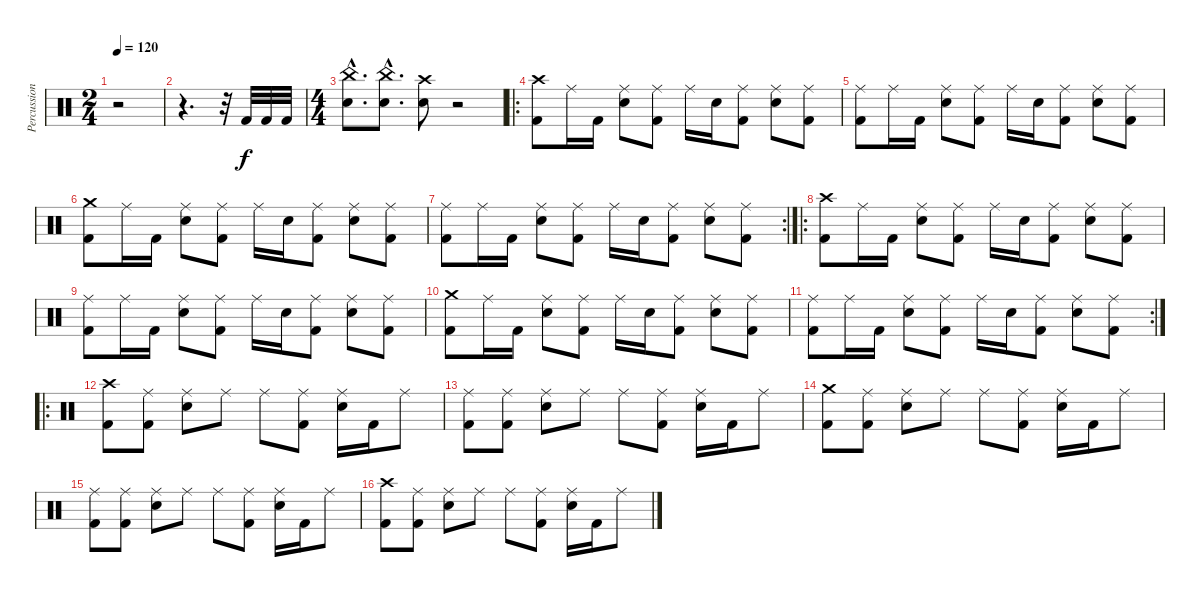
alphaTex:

\track ("Percussions" "Percussion") {instrument percussion}
\staff {score}
\articulation defaults
\ts (2 4)
\tempo 120
\clef neutral
\ks c
r.2{dy f} |
r.4{d} r.32 "Kick (hit) 2".32 "Kick (hit) 2".32 "Kick (hit) 2".32 |
\ts (4 4)
("China (hit)"{hac} "Electric Snare (hit)"{hac}).8{d} ("China (hit)"{hac} "Electric Snare (hit)"{hac}).8{d} ("Crash high (hit)" "Electric Snare (hit)").8 r.2 |
\ro
("Crash high (hit)" "Kick (hit) 2").8 "Ride (middle)".16 "Kick (hit) 2".16 ("Ride (middle)" "Electric Snare (hit)").8 ("Ride (middle)" "Kick (hit) 2").8 "Ride (middle)".16 "Electric Snare (hit)".16 ("Ride (middle)" "Kick (hit) 2").8 ("Ride (middle)" "Electric Snare (hit)").8 ("Ride (middle)" "Kick (hit) 2").8 |
("Ride (middle)" "Kick (hit) 2").8 "Ride (middle)".16 "Kick (hit) 2".16 ("Ride (middle)" "Electric Snare (hit)").8 ("Ride (middle)" "Kick (hit) 2").8 "Ride (middle)".16 "Electric Snare (hit)".16 ("Ride (middle)" "Kick (hit) 2").8 ("Ride (middle)" "Electric Snare (hit)").8 ("Ride (middle)" "Kick (hit) 2").8 |
("Crash medium (hit)" "Kick (hit) 2").8 "Ride (middle)".16 "Kick (hit) 2".16 ("Ride (middle)" "Electric Snare (hit)").8 ("Ride (middle)" "Kick (hit) 2").8 "Ride (middle)".16 "Electric Snare (hit)".16 ("Ride (middle)" "Kick (hit) 2").8 ("Ride (middle)" "Electric Snare (hit)").8 ("Ride (middle)" "Kick (hit) 2").8 |
\rc 2
("Ride (middle)" "Kick (hit) 2").8 "Ride (middle)".16 "Kick (hit) 2".16 ("Ride (middle)" "Electric Snare (hit)").8 ("Ride (middle)" "Kick (hit) 2").8 "Ride (middle)".16 "Electric Snare (hit)".16 ("Ride (middle)" "Kick (hit) 2").8 ("Ride (middle)" "Electric Snare (hit)").8 ("Ride (middle)" "Kick (hit) 2").8 |
\ro
("Crash high (hit)" "Kick (hit) 2").8 "Ride (middle)".16 "Kick (hit) 2".16 ("Ride (middle)" "Electric Snare (hit)").8 ("Ride (middle)" "Kick (hit) 2").8 "Ride (middle)".16 "Electric Snare (hit)".16 ("Ride (middle)" "Kick (hit) 2").8 ("Ride (middle)" "Electric Snare (hit)").8 ("Ride (middle)" "Kick (hit) 2").8 |
("Ride (middle)" "Kick (hit) 2").8 "Ride (middle)".16 "Kick (hit) 2".16 ("Ride (middle)" "Electric Snare (hit)").8 ("Ride (middle)" "Kick (hit) 2").8 "Ride (middle)".16 "Electric Snare (hit)".16 ("Ride (middle)" "Kick (hit) 2").8 ("Ride (middle)" "Electric Snare (hit)").8 ("Ride (middle)" "Kick (hit) 2").8 |
("Crash medium (hit)" "Kick (hit) 2").8 "Ride (middle)".16 "Kick (hit) 2".16 ("Ride (middle)" "Electric Snare (hit)").8 ("Ride (middle)" "Kick (hit) 2").8 "Ride (middle)".16 "Electric Snare (hit)".16 ("Ride (middle)" "Kick (hit) 2").8 ("Ride (middle)" "Electric Snare (hit)").8 ("Ride (middle)" "Kick (hit) 2").8 |
\rc 2
("Ride (middle)" "Kick (hit) 2").8 "Ride (middle)".16 "Kick (hit) 2".16 ("Ride (middle)" "Electric Snare (hit)").8 ("Ride (middle)" "Kick (hit) 2").8 "Ride (middle)".16 "Electric Snare (hit)".16 ("Ride (middle)" "Kick (hit) 2").8 ("Ride (middle)" "Electric Snare (hit)").8 ("Ride (middle)" "Kick (hit) 2").8 |
\ro
("Crash high (hit)" "Kick (hit) 2").8 ("Ride (middle)" "Kick (hit) 2").8 ("Ride (middle)" "Electric Snare (hit)").8 "Ride (middle)".8 "Ride (middle)".8 ("Ride (middle)" "Kick (hit) 2").8 ("Ride (middle)" "Electric Snare (hit)").16 "Kick (hit) 2".16 "Ride (middle)".8 |
("Ride (middle)" "Kick (hit) 2").8 ("Ride (middle)" "Kick (hit) 2").8 ("Ride (middle)" "Electric Snare (hit)").8 "Ride (middle)".8 "Ride (middle)".8 ("Ride (middle)" "Kick (hit) 2").8 ("Ride (middle)" "Electric Snare (hit)").16 "Kick (hit) 2".16 "Ride (middle)".8 |
("Crash medium (hit)" "Kick (hit) 2").8 ("Ride (middle)" "Kick (hit) 2").8 ("Ride (middle)" "Electric Snare (hit)").8 "Ride (middle)".8 "Ride (middle)".8 ("Ride (middle)" "Kick (hit) 2").8 ("Ride (middle)" "Electric Snare (hit)").16 "Kick (hit) 2".16 "Ride (middle)".8 |
("Ride (middle)" "Kick (hit) 2").8 ("Ride (middle)" "Kick (hit) 2").8 ("Ride (middle)" "Electric Snare (hit)").8 "Ride (middle)".8 "Ride (middle)".8 ("Ride (middle)" "Kick (hit) 2").8 ("Ride (middle)" "Electric Snare (hit)").16 "Kick (hit) 2".16 "Ride (middle)".8 |
("Crash high (hit)" "Kick (hit) 2").8 ("Ride (middle)" "Kick (hit) 2").8 ("Ride (middle)" "Electric Snare (hit)").8 "Ride (middle)".8 "Ride (middle)".8 ("Ride (middle)" "Kick (hit) 2").8 ("Ride (middle)" "Electric Snare (hit)").16 "Kick (hit) 2".16 "Ride (middle)".8
